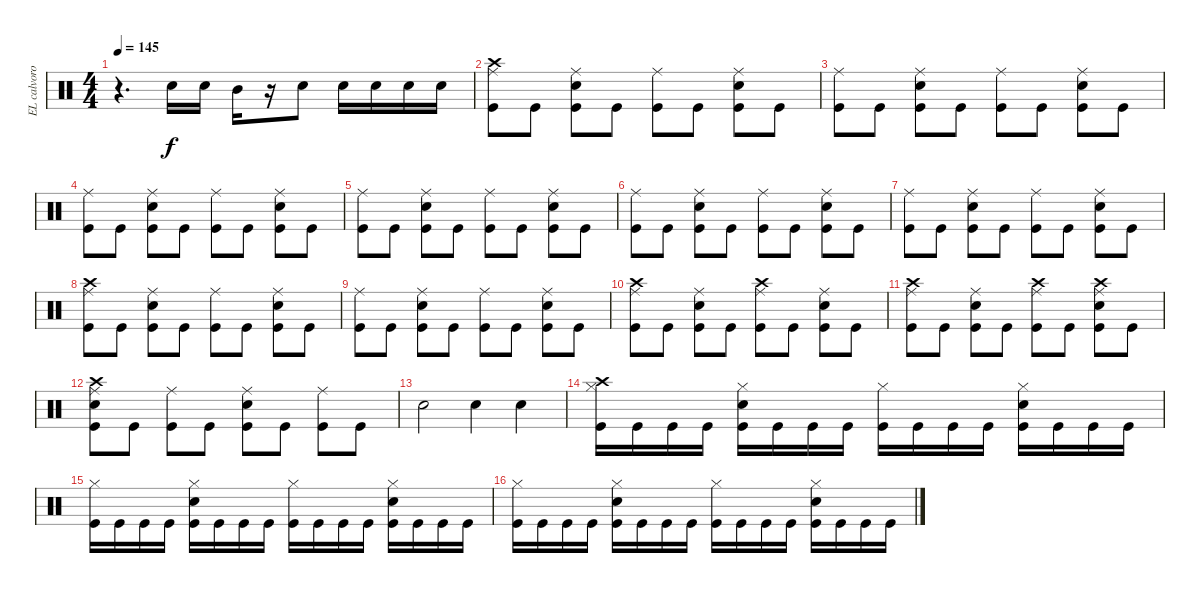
\track ("EL calvorotas" "EL calvoro") {instrument percussion}
\staff {score}
\articulation defaults
\ts (4 4)
\tempo 145
\clef neutral
\ks c
r.4{d dy f} "Snare (hit) 2".16 "Snare (hit) 2".16 "Mid Tom (hit)".16 r.16 "Snare (hit) 2".8 "Snare (hit) 2".16 "Snare (hit) 2".16 "Snare (hit) 2".16 "Snare (hit) 2".16 |
("Crash high (hit)" "Kick (hit)" "Ride (middle)").8 "Kick (hit)".8 ("Kick (hit)" "Snare (hit) 2" "Ride (middle)").8 "Kick (hit)".8 ("Kick (hit)" "Ride (middle)").8 "Kick (hit)".8 ("Kick (hit)" "Snare (hit) 2" "Ride (middle)").8 "Kick (hit)".8 |
("Kick (hit)" "Ride (middle)").8 "Kick (hit)".8 ("Kick (hit)" "Snare (hit) 2" "Ride (middle)").8 "Kick (hit)".8 ("Kick (hit)" "Ride (middle)").8 "Kick (hit)".8 ("Kick (hit)" "Snare (hit) 2" "Ride (middle)").8 "Kick (hit)".8 |
("Kick (hit)" "Ride (middle)").8 "Kick (hit)".8 ("Kick (hit)" "Snare (hit) 2" "Ride (middle)").8 "Kick (hit)".8 ("Kick (hit)" "Ride (middle)").8 "Kick (hit)".8 ("Kick (hit)" "Snare (hit) 2" "Ride (middle)").8 "Kick (hit)".8 |
("Kick (hit)" "Ride (middle)").8 "Kick (hit)".8 ("Kick (hit)" "Snare (hit) 2" "Ride (middle)").8 "Kick (hit)".8 ("Kick (hit)" "Ride (middle)").8 "Kick (hit)".8 ("Kick (hit)" "Snare (hit) 2" "Ride (middle)").8 "Kick (hit)".8 |
("Kick (hit)" "Ride (middle)").8 "Kick (hit)".8 ("Kick (hit)" "Snare (hit) 2" "Ride (middle)").8 "Kick (hit)".8 ("Kick (hit)" "Ride (middle)").8 "Kick (hit)".8 ("Kick (hit)" "Snare (hit) 2" "Ride (middle)").8 "Kick (hit)".8 |
("Kick (hit)" "Ride (middle)").8 "Kick (hit)".8 ("Kick (hit)" "Snare (hit) 2" "Ride (middle)").8 "Kick (hit)".8 ("Kick (hit)" "Ride (middle)").8 "Kick (hit)".8 ("Kick (hit)" "Snare (hit) 2" "Ride (middle)").8 "Kick (hit)".8 |
("Kick (hit)" "Ride (middle)" "Crash high (hit)").8 "Kick (hit)".8 ("Kick (hit)" "Snare (hit) 2" "Ride (middle)").8 "Kick (hit)".8 ("Kick (hit)" "Ride (middle)").8 "Kick (hit)".8 ("Kick (hit)" "Snare (hit) 2" "Ride (middle)").8 "Kick (hit)".8 |
("Kick (hit)" "Ride (middle)").8 "Kick (hit)".8 ("Kick (hit)" "Snare (hit) 2" "Ride (middle)").8 "Kick (hit)".8 ("Kick (hit)" "Ride (middle)").8 "Kick (hit)".8 ("Kick (hit)" "Snare (hit) 2" "Ride (middle)").8 "Kick (hit)".8 |
("Kick (hit)" "Ride (middle)" "Crash high (hit)").8 "Kick (hit)".8 ("Kick (hit)" "Snare (hit) 2" "Ride (middle)").8 "Kick (hit)".8 ("Kick (hit)" "Ride (middle)" "Crash high (hit)").8 "Kick (hit)".8 ("Kick (hit)" "Snare (hit) 2" "Ride (middle)").8 "Kick (hit)".8 |
("Kick (hit)" "Ride (middle)" "Crash high (hit)").8 "Kick (hit)".8 ("Kick (hit)" "Snare (hit) 2" "Ride (middle)").8 "Kick (hit)".8 ("Kick (hit)" "Ride (middle)" "Crash high (hit)").8 "Kick (hit)".8 ("Crash high (hit)" "Kick (hit)" "Snare (hit) 2" "Ride (middle)").8 "Kick (hit)".8 |
("Snare (hit) 2" "Kick (hit)" "Ride (middle)" "Crash high (hit)").8 "Kick (hit)".8 ("Kick (hit)" "Ride (middle)").8 "Kick (hit)".8 ("Snare (hit) 2" "Kick (hit)" "Ride (middle)").8 "Kick (hit)".8 ("Kick (hit)" "Ride (middle)").8 "Kick (hit)".8 |
"Snare (hit) 2".2 "Snare (hit) 2".4 "Snare (hit) 2".4 |
("Crash high (hit)" "Kick (hit)" "Hi-Hat (closed)").16 "Kick (hit)".16 "Kick (hit)".16 "Kick (hit)".16 ("Hi-Hat (closed)" "Kick (hit)" "Snare (hit) 2").16 "Kick (hit)".16 "Kick (hit)".16 "Kick (hit)".16 ("Hi-Hat (closed)" "Kick (hit)").16 "Kick (hit)".16 "Kick (hit)".16 "Kick (hit)".16 ("Hi-Hat (closed)" "Kick (hit)" "Snare (hit) 2").16 "Kick (hit)".16 "Kick (hit)".16 "Kick (hit)".16 |
("Kick (hit)" "Hi-Hat (closed)").16 "Kick (hit)".16 "Kick (hit)".16 "Kick (hit)".16 ("Hi-Hat (closed)" "Kick (hit)" "Snare (hit) 2").16 "Kick (hit)".16 "Kick (hit)".16 "Kick (hit)".16 ("Hi-Hat (closed)" "Kick (hit)").16 "Kick (hit)".16 "Kick (hit)".16 "Kick (hit)".16 ("Hi-Hat (closed)" "Kick (hit)" "Snare (hit) 2").16 "Kick (hit)".16 "Kick (hit)".16 "Kick (hit)".16 |
("Kick (hit)" "Hi-Hat (closed)").16 "Kick (hit)".16 "Kick (hit)".16 "Kick (hit)".16 ("Hi-Hat (closed)" "Kick (hit)" "Snare (hit) 2").16 "Kick (hit)".16 "Kick (hit)".16 "Kick (hit)".16 ("Hi-Hat (closed)" "Kick (hit)").16 "Kick (hit)".16 "Kick (hit)".16 "Kick (hit)".16 ("Hi-Hat (closed)" "Kick (hit)" "Snare (hit) 2").16 "Kick (hit)".16 "Kick (hit)".16 "Kick (hit)".16
